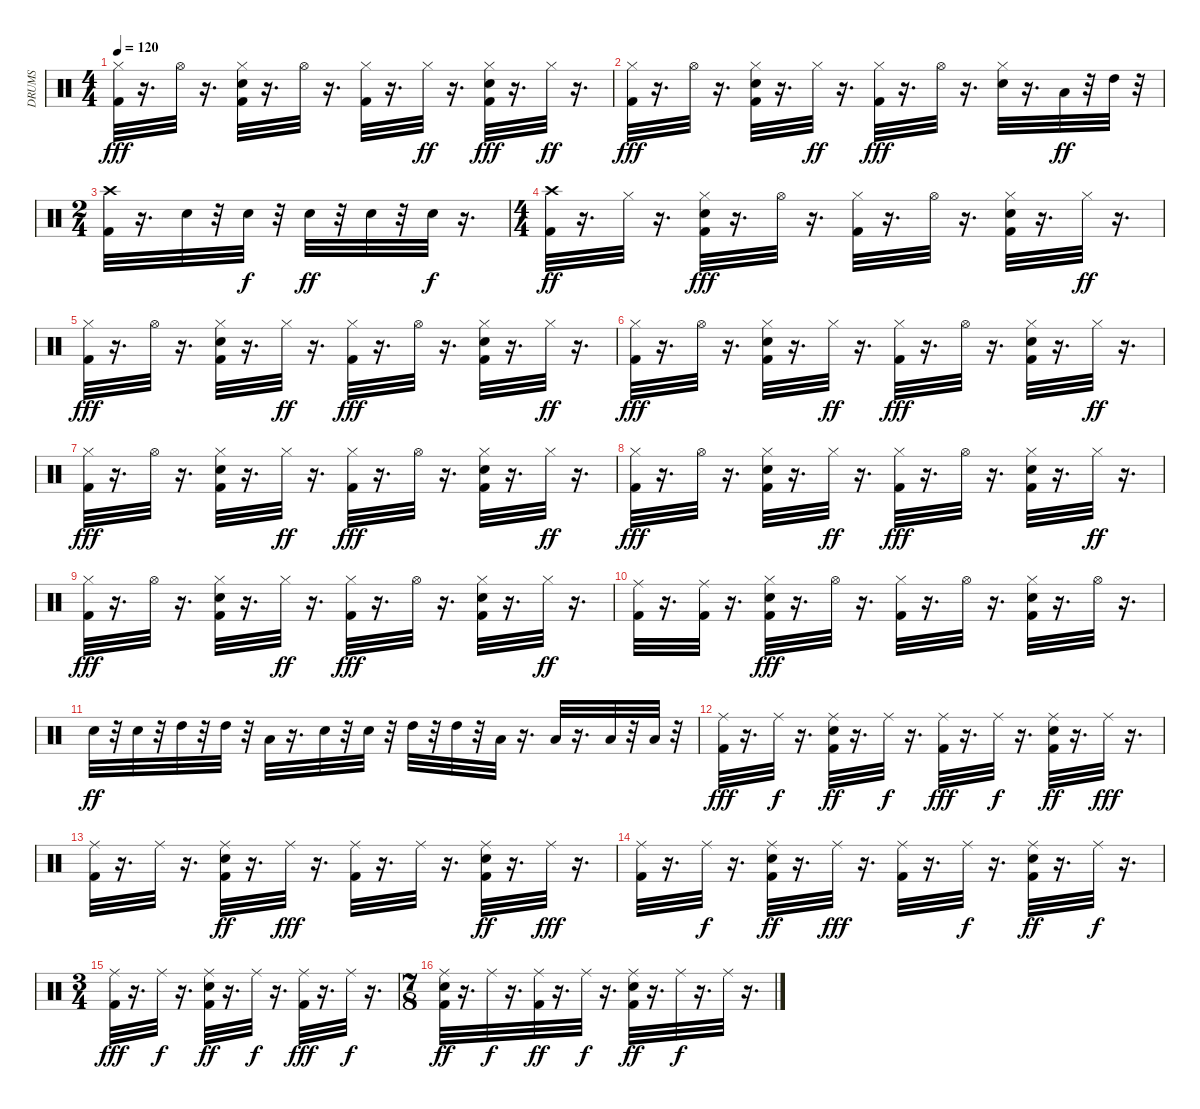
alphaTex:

\track ("DRUMS            " "DRUMS     ") {instrument percussion}
\staff {score}
\articulation defaults
\ts (4 4)
\tempo 120
\clef neutral
\ks c
("Kick (hit) 2" "Hi-Hat (closed)").32{dy fff} r.16{d} "Hi-Hat (open)".32 r.16{d} ("Kick (hit) 2" "Snare (hit) 2" "Hi-Hat (closed)").32 r.16{d} "Hi-Hat (open)".32 r.16{d} ("Kick (hit) 2" "Hi-Hat (closed)").32 r.16{d} "Hi-Hat (closed)".32{dy ff} r.16{d} ("Kick (hit) 2" "Snare (hit) 2" "Hi-Hat (closed)").32{dy fff} r.16{d} "Hi-Hat (closed)".32{dy ff} r.16{d} |
("Kick (hit) 2" "Hi-Hat (closed)").32{dy fff} r.16{d} "Hi-Hat (open)".32 r.16{d} ("Kick (hit) 2" "Snare (hit) 2" "Hi-Hat (closed)").32 r.16{d} "Hi-Hat (closed)".32{dy ff} r.16{d} ("Kick (hit) 2" "Hi-Hat (closed)").32{dy fff} r.16{d} "Hi-Hat (open)".32 r.16{d} ("Snare (hit) 2" "Hi-Hat (closed)").32 r.16{d} "Low Tom (hit)".32{dy ff} r.32 "High Tom (hit)".32 r.32 |
\ts (2 4)
("Kick (hit) 2" "Crash high (hit)").32 r.16{d} "Snare (hit) 2".32 r.32 "Snare (hit) 2".32{dy f} r.32 "Snare (hit) 2".32{dy ff} r.32 "Snare (hit) 2".32 r.32 "Snare (hit) 2".32{dy f} r.16{d} |
\ts (4 4)
("Kick (hit) 2" "Crash high (hit)").32{dy ff} r.16{d} "Hi-Hat (closed)".32 r.16{d} ("Kick (hit) 2" "Snare (hit) 2" "Hi-Hat (closed)").32{dy fff} r.16{d} "Hi-Hat (open)".32 r.16{d} ("Kick (hit) 2" "Hi-Hat (closed)").32 r.16{d} "Hi-Hat (open)".32 r.16{d} ("Kick (hit) 2" "Snare (hit) 2" "Hi-Hat (closed)").32 r.16{d} "Hi-Hat (closed)".32{dy ff} r.16{d} |
("Kick (hit) 2" "Hi-Hat (closed)").32{dy fff} r.16{d} "Hi-Hat (open)".32 r.16{d} ("Kick (hit) 2" "Snare (hit) 2" "Hi-Hat (closed)").32 r.16{d} "Hi-Hat (closed)".32{dy ff} r.16{d} ("Kick (hit) 2" "Hi-Hat (closed)").32{dy fff} r.16{d} "Hi-Hat (open)".32 r.16{d} ("Kick (hit) 2" "Snare (hit) 2" "Hi-Hat (closed)").32 r.16{d} "Hi-Hat (closed)".32{dy ff} r.16{d} |
("Kick (hit) 2" "Hi-Hat (closed)").32{dy fff} r.16{d} "Hi-Hat (open)".32 r.16{d} ("Kick (hit) 2" "Snare (hit) 2" "Hi-Hat (closed)").32 r.16{d} "Hi-Hat (closed)".32{dy ff} r.16{d} ("Kick (hit) 2" "Hi-Hat (closed)").32{dy fff} r.16{d} "Hi-Hat (open)".32 r.16{d} ("Kick (hit) 2" "Snare (hit) 2" "Hi-Hat (closed)").32 r.16{d} "Hi-Hat (closed)".32{dy ff} r.16{d} |
("Kick (hit) 2" "Hi-Hat (closed)").32{dy fff} r.16{d} "Hi-Hat (open)".32 r.16{d} ("Kick (hit) 2" "Snare (hit) 2" "Hi-Hat (closed)").32 r.16{d} "Hi-Hat (closed)".32{dy ff} r.16{d} ("Kick (hit) 2" "Hi-Hat (closed)").32{dy fff} r.16{d} "Hi-Hat (open)".32 r.16{d} ("Kick (hit) 2" "Snare (hit) 2" "Hi-Hat (closed)").32 r.16{d} "Hi-Hat (closed)".32{dy ff} r.16{d} |
("Kick (hit) 2" "Hi-Hat (closed)").32{dy fff} r.16{d} "Hi-Hat (open)".32 r.16{d} ("Kick (hit) 2" "Snare (hit) 2" "Hi-Hat (closed)").32 r.16{d} "Hi-Hat (closed)".32{dy ff} r.16{d} ("Kick (hit) 2" "Hi-Hat (closed)").32{dy fff} r.16{d} "Hi-Hat (open)".32 r.16{d} ("Kick (hit) 2" "Snare (hit) 2" "Hi-Hat (closed)").32 r.16{d} "Hi-Hat (closed)".32{dy ff} r.16{d} |
("Kick (hit) 2" "Hi-Hat (closed)").32{dy fff} r.16{d} "Hi-Hat (open)".32 r.16{d} ("Kick (hit) 2" "Snare (hit) 2" "Hi-Hat (closed)").32 r.16{d} "Hi-Hat (closed)".32{dy ff} r.16{d} ("Kick (hit) 2" "Hi-Hat (closed)").32{dy fff} r.16{d} "Hi-Hat (open)".32 r.16{d} ("Kick (hit) 2" "Snare (hit) 2" "Hi-Hat (closed)").32 r.16{d} "Hi-Hat (closed)".32{dy ff} r.16{d} |
("Kick (hit) 2" "Ride (middle)").32 r.16{d} ("Kick (hit) 2" "Ride (middle)").32 r.16{d} ("Kick (hit) 2" "Snare (hit) 2" "Hi-Hat (closed)").32{dy fff} r.16{d} "Hi-Hat (open)".32 r.16{d} ("Kick (hit) 2" "Hi-Hat (closed)").32 r.16{d} "Hi-Hat (open)".32 r.16{d} ("Kick (hit) 2" "Snare (hit) 2" "Hi-Hat (closed)").32 r.16{d} "Hi-Hat (open)".32 r.16{d} |
"Snare (hit) 2".32{dy ff volume 16} r.32 "Snare (hit) 2".32 r.32 "High Tom (hit)".32 r.32 "High Tom (hit)".32 r.32 "Low Tom (hit)".32 r.16{d} "Snare (hit) 2".32 r.32 "Snare (hit) 2".32 r.32 "High Tom (hit)".32 r.32 "High Tom (hit)".32 r.32 "Low Tom (hit)".32 r.16{d} "Low Floor Tom (hit)".32 r.16{d} "Low Floor Tom (hit)".32 r.32 "Low Floor Tom (hit)".32 r.32 |
("Kick (hit) 2" "Ride (middle)").32{dy fff} r.16{d} "Ride (middle)".32{dy f} r.16{d} ("Kick (hit) 2" "Snare (hit) 2" "Ride (middle)").32{dy ff} r.16{d} "Ride (middle)".32{dy f} r.16{d} ("Kick (hit) 2" "Ride (middle)").32{dy fff} r.16{d} "Ride (middle)".32{dy f} r.16{d} ("Kick (hit) 2" "Snare (hit) 2" "Ride (middle)").32{dy ff} r.16{d} "Ride (middle)".32{dy fff} r.16{d} |
("Ride (middle)" "Kick (hit) 2").32 r.16{d} "Ride (middle)".32 r.16{d} ("Ride (middle)" "Kick (hit) 2" "Snare (hit) 2").32{dy ff} r.16{d} "Ride (middle)".32{dy fff} r.16{d} ("Ride (middle)" "Kick (hit) 2").32 r.16{d} "Ride (middle)".32 r.16{d} ("Ride (middle)" "Kick (hit) 2" "Snare (hit) 2").32{dy ff} r.16{d} "Ride (middle)".32{dy fff} r.16{d} |
("Kick (hit) 2" "Ride (middle)").32 r.16{d} "Ride (middle)".32{dy f} r.16{d} ("Kick (hit) 2" "Snare (hit) 2" "Ride (middle)").32{dy ff} r.16{d} "Ride (middle)".32{dy fff} r.16{d} ("Kick (hit) 2" "Ride (middle)").32 r.16{d} "Ride (middle)".32{dy f} r.16{d} ("Kick (hit) 2" "Snare (hit) 2" "Ride (middle)").32{dy ff} r.16{d} "Ride (middle)".32{dy f} r.16{d} |
\ts (3 4)
("Kick (hit) 2" "Ride (middle)").32{dy fff} r.16{d} "Ride (middle)".32{dy f} r.16{d} ("Kick (hit) 2" "Snare (hit) 2" "Ride (middle)").32{dy ff} r.16{d} "Ride (middle)".32{dy f} r.16{d} ("Kick (hit) 2" "Ride (middle)").32{dy fff} r.16{d} "Ride (middle)".32{dy f} r.16{d} |
\ts (7 8)
("Kick (hit) 2" "Snare (hit) 2" "Ride (middle)").32{dy ff} r.16{d} "Ride (middle)".32{dy f} r.16{d} ("Kick (hit) 2" "Ride (middle)").32{dy ff} r.16{d} "Ride (middle)".32{dy f} r.16{d} ("Kick (hit) 2" "Snare (hit) 2" "Ride (middle)").32{dy ff} r.16{d} "Ride (middle)".32{dy f} r.16{d} "Ride (middle)".32 r.16{d}
